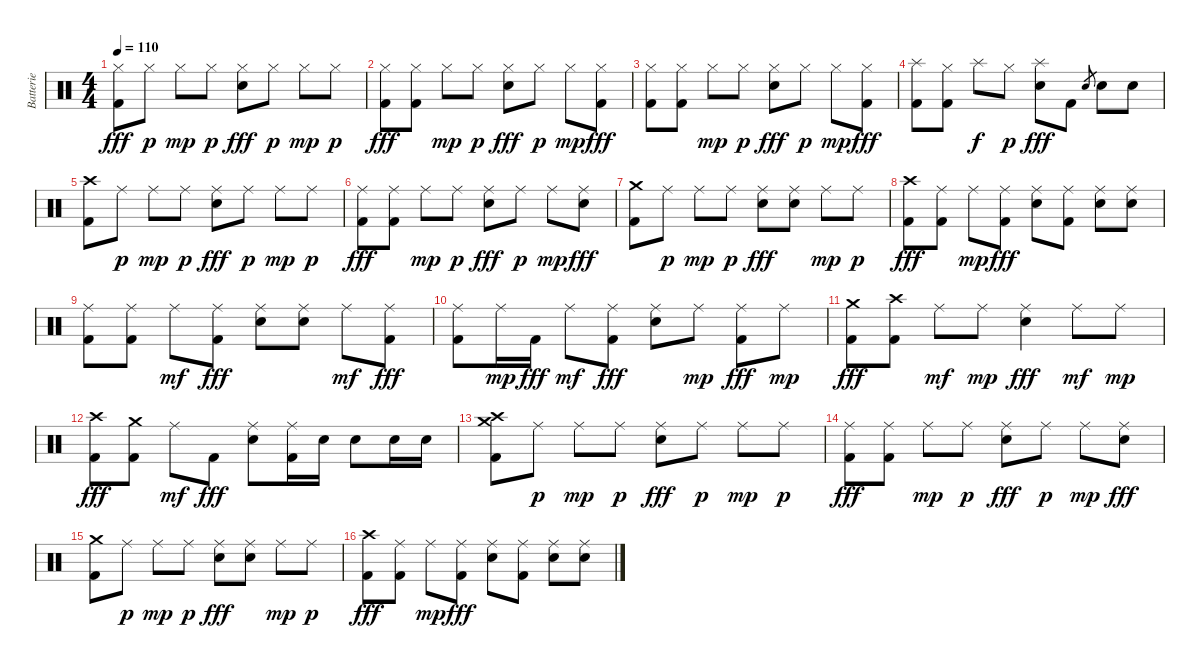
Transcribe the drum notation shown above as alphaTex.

\track ("Batterie" "Batterie") {instrument percussion}
\staff {score}
\articulation defaults
\ts (4 4)
\tempo 110
\clef neutral
\ks c
("Hi-Hat (closed)" "Kick (hit) 2").8{dy fff} "Hi-Hat (closed)".8{dy p} "Hi-Hat (closed)".8{dy mp} "Hi-Hat (closed)".8{dy p} ("Hi-Hat (closed)" "Electric Snare (hit)").8{dy fff} "Hi-Hat (closed)".8{dy p} "Hi-Hat (closed)".8{dy mp} "Hi-Hat (closed)".8{dy p} |
("Hi-Hat (closed)" "Kick (hit) 2").8{dy fff} ("Hi-Hat (closed)" "Kick (hit) 2").8 "Hi-Hat (closed)".8{dy mp} "Hi-Hat (closed)".8{dy p} ("Hi-Hat (closed)" "Electric Snare (hit)").8{dy fff} "Hi-Hat (closed)".8{dy p} "Hi-Hat (closed)".8{dy mp} ("Hi-Hat (closed)" "Kick (hit) 2").8{dy fff} |
("Hi-Hat (closed)" "Kick (hit) 2").8 ("Hi-Hat (closed)" "Kick (hit) 2").8 "Hi-Hat (closed)".8{dy mp} "Hi-Hat (closed)".8{dy p} ("Hi-Hat (closed)" "Electric Snare (hit)").8{dy fff} "Hi-Hat (closed)".8{dy p} "Hi-Hat (closed)".8{dy mp} ("Hi-Hat (closed)" "Kick (hit) 2").8{dy fff} |
("Splash (hit)" "Kick (hit) 2").8 ("Hi-Hat (closed)" "Kick (hit) 2").8 "Splash (hit)".8{dy f} "Hi-Hat (closed)".8{dy p} ("Splash (hit)" "Electric Snare (hit)").8{dy fff} "Kick (hit) 2".8 "Electric Snare (hit)".8{gr} "Electric Snare (hit)".8 "Electric Snare (hit)".8 |
("Crash high (hit)" "Kick (hit) 2").8 "Ride (middle)".8{dy p} "Ride (middle)".8{dy mp} "Ride (middle)".8{dy p} ("Ride (middle)" "Electric Snare (hit)").8{dy fff} "Ride (middle)".8{dy p} "Ride (middle)".8{dy mp} "Ride (middle)".8{dy p} |
("Ride (middle)" "Kick (hit) 2").8{dy fff} ("Ride (middle)" "Kick (hit) 2").8 "Ride (middle)".8{dy mp} "Ride (middle)".8{dy p} ("Ride (middle)" "Electric Snare (hit)").8{dy fff} "Ride (middle)".8{dy p} "Ride (middle)".8{dy mp} ("Ride (middle)" "Electric Snare (hit)").8{dy fff} |
("Crash medium (hit)" "Kick (hit) 2").8 "Ride (middle)".8{dy p} "Ride (middle)".8{dy mp} "Ride (middle)".8{dy p} ("Ride (middle)" "Electric Snare (hit)").8{dy fff} ("Ride (middle)" "Electric Snare (hit)").8 "Ride (middle)".8{dy mp} "Ride (middle)".8{dy p} |
("Crash high (hit)" "Kick (hit) 2").8{dy fff} ("Ride (middle)" "Kick (hit) 2").8 "Ride (middle)".8{dy mp} ("Ride (middle)" "Kick (hit) 2").8{dy fff} ("Ride (middle)" "Electric Snare (hit)").8 ("Ride (middle)" "Kick (hit) 2").8 ("Ride (middle)" "Electric Snare (hit)").8 ("Ride (middle)" "Electric Snare (hit)").8 |
("Ride (middle)" "Kick (hit) 2").8 ("Ride (middle)" "Kick (hit) 2").8 "Ride (middle)".8{dy mf} ("Ride (middle)" "Kick (hit) 2").8{dy fff} ("Ride (middle)" "Electric Snare (hit)").8 ("Ride (middle)" "Electric Snare (hit)").8 "Ride (middle)".8{dy mf} ("Ride (middle)" "Kick (hit) 2").8{dy fff} |
("Ride (middle)" "Kick (hit) 2").8 "Ride (middle)".16{dy mp} "Kick (hit) 2".16{dy fff} "Ride (middle)".8{dy mf} ("Ride (middle)" "Kick (hit) 2").8{dy fff} ("Ride (middle)" "Electric Snare (hit)").8 "Ride (middle)".8{dy mp} ("Ride (middle)" "Kick (hit) 2").8{dy fff} "Ride (middle)".8{dy mp} |
("Crash medium (hit)" "Kick (hit) 2").8{dy fff} ("Crash high (hit)" "Kick (hit) 2").8 "Ride (middle)".8{dy mf} "Ride (middle)".8{dy mp} ("Ride (middle)" "Electric Snare (hit)").4{dy fff} "Ride (middle)".8{dy mf} "Ride (middle)".8{dy mp} |
("Crash high (hit)" "Kick (hit) 2").8{dy fff} ("Crash medium (hit)" "Kick (hit) 2").8 "Ride (middle)".8{dy mf} "Kick (hit) 2".8{dy fff} ("Ride (middle)" "Electric Snare (hit)").8 ("Ride (middle)" "Kick (hit) 2").16 "Electric Snare (hit)".16 "Electric Snare (hit)".8 "Electric Snare (hit)".16 "Electric Snare (hit)".16 |
("Crash high (hit)" "Crash medium (hit)" "Kick (hit) 2").8 "Ride (middle)".8{dy p} "Ride (middle)".8{dy mp} "Ride (middle)".8{dy p} ("Ride (middle)" "Electric Snare (hit)").8{dy fff} "Ride (middle)".8{dy p} "Ride (middle)".8{dy mp} "Ride (middle)".8{dy p} |
("Ride (middle)" "Kick (hit) 2").8{dy fff} ("Ride (middle)" "Kick (hit) 2").8 "Ride (middle)".8{dy mp} "Ride (middle)".8{dy p} ("Ride (middle)" "Electric Snare (hit)").8{dy fff} "Ride (middle)".8{dy p} "Ride (middle)".8{dy mp} ("Ride (middle)" "Electric Snare (hit)").8{dy fff} |
("Crash medium (hit)" "Kick (hit) 2").8 "Ride (middle)".8{dy p} "Ride (middle)".8{dy mp} "Ride (middle)".8{dy p} ("Ride (middle)" "Electric Snare (hit)").8{dy fff} ("Ride (middle)" "Electric Snare (hit)").8 "Ride (middle)".8{dy mp} "Ride (middle)".8{dy p} |
("Crash high (hit)" "Kick (hit) 2").8{dy fff} ("Ride (middle)" "Kick (hit) 2").8 "Ride (middle)".8{dy mp} ("Ride (middle)" "Kick (hit) 2").8{dy fff} ("Ride (middle)" "Electric Snare (hit)").8 ("Ride (middle)" "Kick (hit) 2").8 ("Ride (middle)" "Electric Snare (hit)").8 ("Ride (middle)" "Electric Snare (hit)").8
